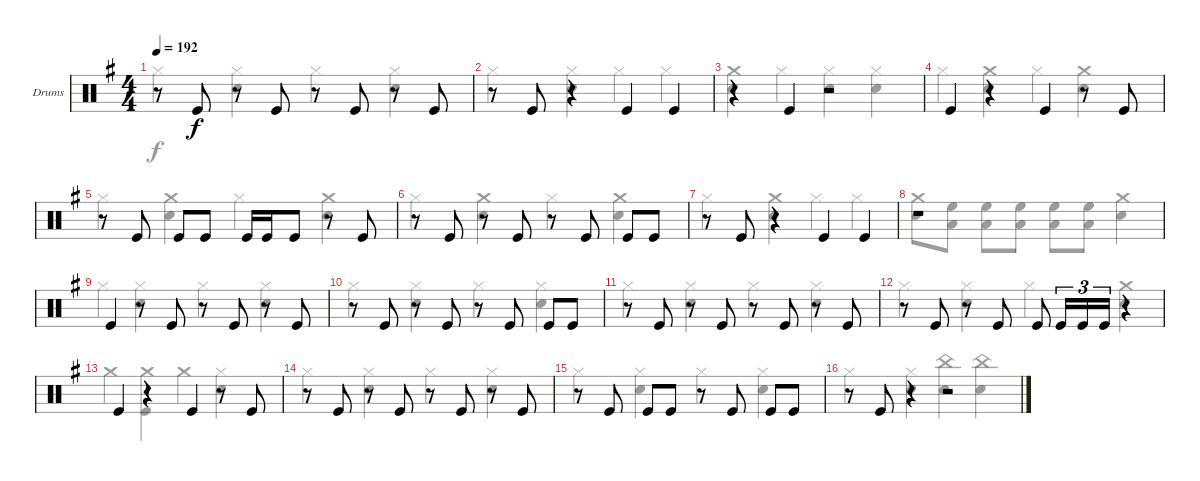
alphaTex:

\bracketExtendMode groupsimilarinstruments
\firstSystemTrackNameOrientation horizontal
\otherSystemsTrackNameOrientation horizontal
\track ("Drumkit" "Drums") {instrument percussion}
\staff {score}
\articulation defaults
\voice
\ts (4 4)
\tempo 192
\clef neutral
\scale
1.04288
\ks g
r.8{dy f} "Kick (hit)".8 r.8 "Kick (hit)".8 r.8 "Kick (hit)".8 r.8 "Kick (hit)".8 |
\scale
0.957125 r.8 "Kick (hit)".8 r.4 "Kick (hit)".4 "Kick (hit)".4 |
\scale
1.04288 r.4 "Kick (hit)".4 r.2 |
\scale
0.957125 "Kick (hit)".4 r.4 "Kick (hit)".4 r.8 "Kick (hit)".8 |
\scale
1.04288 r.8 "Kick (hit)".8 "Kick (hit)".8 "Kick (hit)".8 "Kick (hit)".16 "Kick (hit)".16 "Kick (hit)".8 r.8 "Kick (hit)".8 |
\scale
0.957125 r.8 "Kick (hit)".8 r.8 "Kick (hit)".8 r.8 "Kick (hit)".8 "Kick (hit)".8 "Kick (hit)".8 |
\scale
1.04288 r.8 "Kick (hit)".8 r.4 "Kick (hit)".4 "Kick (hit)".4 |
\scale
0.957125 r.1 |
\scale
1.04288 "Kick (hit)".4 r.8 "Kick (hit)".8 r.8 "Kick (hit)".8 r.8 "Kick (hit)".8 |
\scale
0.957125 r.8 "Kick (hit)".8 r.8 "Kick (hit)".8 r.8 "Kick (hit)".8 "Kick (hit)".8 "Kick (hit)".8 |
\scale
1.04288 r.8 "Kick (hit)".8 r.8 "Kick (hit)".8 r.8 "Kick (hit)".8 r.8 "Kick (hit)".8 |
\scale
0.957125 r.8 "Kick (hit)".8 r.8 "Kick (hit)".8 "Kick (hit)".8 "Kick (hit)".16{tu (3 2)} "Kick (hit)".16{tu (3 2)} "Kick (hit)".16{tu (3 2)} r.4 |
\scale
1.04288 "Kick (hit)".4 r.4 "Kick (hit)".4 r.8 "Kick (hit)".8 |
\scale
0.957125 r.8 "Kick (hit)".8 r.8 "Kick (hit)".8 r.8 "Kick (hit)".8 r.8 "Kick (hit)".8 |
\scale
1.04288 r.8 "Kick (hit)".8 "Kick (hit)".8 "Kick (hit)".8 r.8 "Kick (hit)".8 "Kick (hit)".8 "Kick (hit)".8 |
\scale
0.957125 r.8 "Kick (hit)".8 r.4 r.2
\voice
\clef neutral
\ottava regular
\simile none
\scale
1.04288
\ks g "Hi-Hat (closed)".4{dy f}
("Hi-Hat (closed)" "Snare (hit) 2").4 "Hi-Hat (closed)".4 ("Hi-Hat (closed)" "Snare (hit) 2").4 |
\scale
0.957125 "Hi-Hat (closed)".4 ("Hi-Hat (closed)" "Snare (hit) 2").4 "Hi-Hat (closed)".4 "Hi-Hat (closed)".4 |
\scale
1.04288 ("Crash medium (hit)" "Snare (hit) 2").4 "Hi-Hat (closed)".4 ("Hi-Hat (closed)" "Snare (hit) 2").4 ("Hi-Hat (closed)" "Snare (hit) 2").4 |
\scale
0.957125 "Hi-Hat (closed)".4 ("Crash medium (hit)" "Snare (hit) 2").4 "Hi-Hat (closed)".4 ("Crash medium (hit)" "Snare (hit) 2").4 |
\scale
1.04288 "Hi-Hat (closed)".4 ("Crash medium (hit)" "Snare (hit) 2").4 "Hi-Hat (closed)".4 ("Crash medium (hit)" "Snare (hit) 2").4 |
\scale
0.957125 "Hi-Hat (closed)".4 ("Crash medium (hit)" "Snare (hit) 2").4 "Hi-Hat (closed)".4 ("Crash medium (hit)" "Snare (hit) 2").4 |
\scale
1.04288 "Hi-Hat (closed)".4 ("Crash medium (hit)" "Snare (hit) 2").4 "Hi-Hat (closed)".4 "Hi-Hat (closed)".4 |
\scale
0.957125 ("Crash medium (hit)" "Snare (hit) 2").8 ("High Floor Tom (hit)" "Low Tom (hit)").8 ("High Floor Tom (hit)" "Low Tom (hit)").8 ("High Floor Tom (hit)" "Low Tom (hit)").8 ("High Floor Tom (hit)" "Low Tom (hit)").8 ("High Floor Tom (hit)" "Low Tom (hit)").8 ("Crash medium (hit)" "Snare (hit) 2").4 |
\scale
1.04288 "Hi-Hat (closed)".4 ("Hi-Hat (closed)" "Snare (hit) 2").4 "Hi-Hat (closed)".4 ("Hi-Hat (closed)" "Snare (hit) 2").4 |
\scale
0.957125 "Hi-Hat (closed)".4 ("Hi-Hat (closed)" "Snare (hit) 2").4 "Hi-Hat (closed)".4 ("Hi-Hat (closed)" "Snare (hit) 2").4 |
\scale
1.04288 "Hi-Hat (closed)".4 ("Hi-Hat (closed)" "Snare (hit) 2").4 "Hi-Hat (closed)".4 ("Hi-Hat (closed)" "Snare (hit) 2").4 |
\scale
0.957125 "Hi-Hat (closed)".4 ("Hi-Hat (closed)" "Snare (hit) 2").4 "Hi-Hat (closed)".4 ("Crash medium (hit)" "Snare (hit) 2").4 |
\scale
1.04288 "Crash medium (hit)".4 ("Crash medium (hit)" "Kick (hit)").4 "Crash medium (hit)".4 ("Hi-Hat (closed)" "Snare (hit) 2").4 |
\scale
0.957125 "Hi-Hat (closed)".4 ("Hi-Hat (closed)" "Snare (hit) 2").4 "Hi-Hat (closed)".4 ("Hi-Hat (closed)" "Snare (hit) 2").4 |
\scale
1.04288 "Hi-Hat (closed)".4 ("Hi-Hat (closed)" "Snare (hit) 2").4 "Hi-Hat (closed)".4 ("Hi-Hat (closed)" "Snare (hit) 2").4 |
\scale
0.957125 "Hi-Hat (closed)".4 ("Hi-Hat (closed)" "Snare (hit) 2").4 ("China (hit)" "Snare (hit) 2").4 ("China (hit)" "Snare (hit) 2").4
